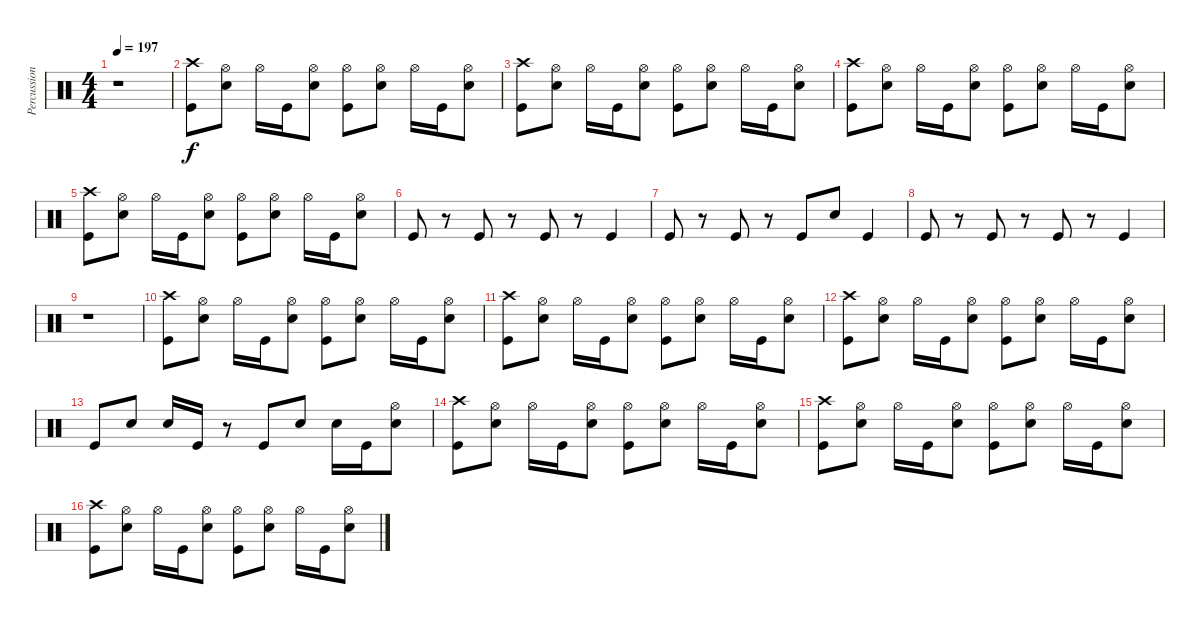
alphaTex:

\track ("Percussion" "Percussion") {instrument percussion}
\staff {score}
\articulation defaults
\ts (4 4)
\tempo 197
\clef neutral
\ks c
r.1{dy f} |
("Crash high (hit)" "Kick (hit)").8 ("Hi-Hat (open)" "Snare (hit) 2").8 "Hi-Hat (open)".16 "Kick (hit)".16 ("Hi-Hat (open)" "Snare (hit) 2").8 ("Hi-Hat (open)" "Kick (hit)").8 ("Hi-Hat (open)" "Snare (hit) 2").8 "Hi-Hat (open)".16 "Kick (hit)".16 ("Hi-Hat (open)" "Snare (hit) 2").8 |
("Crash high (hit)" "Kick (hit)").8 ("Hi-Hat (open)" "Snare (hit) 2").8 "Hi-Hat (open)".16 "Kick (hit)".16 ("Hi-Hat (open)" "Snare (hit) 2").8 ("Hi-Hat (open)" "Kick (hit)").8 ("Hi-Hat (open)" "Snare (hit) 2").8 "Hi-Hat (open)".16 "Kick (hit)".16 ("Hi-Hat (open)" "Snare (hit) 2").8 |
("Crash high (hit)" "Kick (hit)").8 ("Hi-Hat (open)" "Snare (hit) 2").8 "Hi-Hat (open)".16 "Kick (hit)".16 ("Hi-Hat (open)" "Snare (hit) 2").8 ("Hi-Hat (open)" "Kick (hit)").8 ("Hi-Hat (open)" "Snare (hit) 2").8 "Hi-Hat (open)".16 "Kick (hit)".16 ("Hi-Hat (open)" "Snare (hit) 2").8 |
("Crash high (hit)" "Kick (hit)").8 ("Hi-Hat (open)" "Snare (hit) 2").8 "Hi-Hat (open)".16 "Kick (hit)".16 ("Hi-Hat (open)" "Snare (hit) 2").8 ("Hi-Hat (open)" "Kick (hit)").8 ("Hi-Hat (open)" "Snare (hit) 2").8 "Hi-Hat (open)".16 "Kick (hit)".16 ("Hi-Hat (open)" "Snare (hit) 2").8 |
"Kick (hit)".8 r.8 "Kick (hit)".8 r.8 "Kick (hit)".8 r.8 "Kick (hit)".4 |
"Kick (hit)".8 r.8 "Kick (hit)".8 r.8 "Kick (hit)".8 "Snare (hit) 2".8 "Kick (hit)".4 |
"Kick (hit)".8 r.8 "Kick (hit)".8 r.8 "Kick (hit)".8 r.8 "Kick (hit)".4 |
r.1 |
("Crash high (hit)" "Kick (hit)").8 ("Hi-Hat (open)" "Snare (hit) 2").8 "Hi-Hat (open)".16 "Kick (hit)".16 ("Hi-Hat (open)" "Snare (hit) 2").8 ("Hi-Hat (open)" "Kick (hit)").8 ("Hi-Hat (open)" "Snare (hit) 2").8 "Hi-Hat (open)".16 "Kick (hit)".16 ("Hi-Hat (open)" "Snare (hit) 2").8 |
("Crash high (hit)" "Kick (hit)").8 ("Hi-Hat (open)" "Snare (hit) 2").8 "Hi-Hat (open)".16 "Kick (hit)".16 ("Hi-Hat (open)" "Snare (hit) 2").8 ("Hi-Hat (open)" "Kick (hit)").8 ("Hi-Hat (open)" "Snare (hit) 2").8 "Hi-Hat (open)".16 "Kick (hit)".16 ("Hi-Hat (open)" "Snare (hit) 2").8 |
("Crash high (hit)" "Kick (hit)").8 ("Hi-Hat (open)" "Snare (hit) 2").8 "Hi-Hat (open)".16 "Kick (hit)".16 ("Hi-Hat (open)" "Snare (hit) 2").8 ("Hi-Hat (open)" "Kick (hit)").8 ("Hi-Hat (open)" "Snare (hit) 2").8 "Hi-Hat (open)".16 "Kick (hit)".16 ("Hi-Hat (open)" "Snare (hit) 2").8 |
"Kick (hit)".8 "Snare (hit) 2".8 "Snare (hit) 2".16 "Kick (hit)".16 r.8 "Kick (hit)".8 "Snare (hit) 2".8 "Snare (hit) 2".16 "Kick (hit)".16 ("Hi-Hat (open)" "Snare (hit) 2").8 |
("Crash high (hit)" "Kick (hit)").8 ("Hi-Hat (open)" "Snare (hit) 2").8 "Hi-Hat (open)".16 "Kick (hit)".16 ("Hi-Hat (open)" "Snare (hit) 2").8 ("Hi-Hat (open)" "Kick (hit)").8 ("Hi-Hat (open)" "Snare (hit) 2").8 "Hi-Hat (open)".16 "Kick (hit)".16 ("Hi-Hat (open)" "Snare (hit) 2").8 |
("Crash high (hit)" "Kick (hit)").8 ("Hi-Hat (open)" "Snare (hit) 2").8 "Hi-Hat (open)".16 "Kick (hit)".16 ("Hi-Hat (open)" "Snare (hit) 2").8 ("Hi-Hat (open)" "Kick (hit)").8 ("Hi-Hat (open)" "Snare (hit) 2").8 "Hi-Hat (open)".16 "Kick (hit)".16 ("Hi-Hat (open)" "Snare (hit) 2").8 |
("Crash high (hit)" "Kick (hit)").8 ("Hi-Hat (open)" "Snare (hit) 2").8 "Hi-Hat (open)".16 "Kick (hit)".16 ("Hi-Hat (open)" "Snare (hit) 2").8 ("Hi-Hat (open)" "Kick (hit)").8 ("Hi-Hat (open)" "Snare (hit) 2").8 "Hi-Hat (open)".16 "Kick (hit)".16 ("Hi-Hat (open)" "Snare (hit) 2").8
